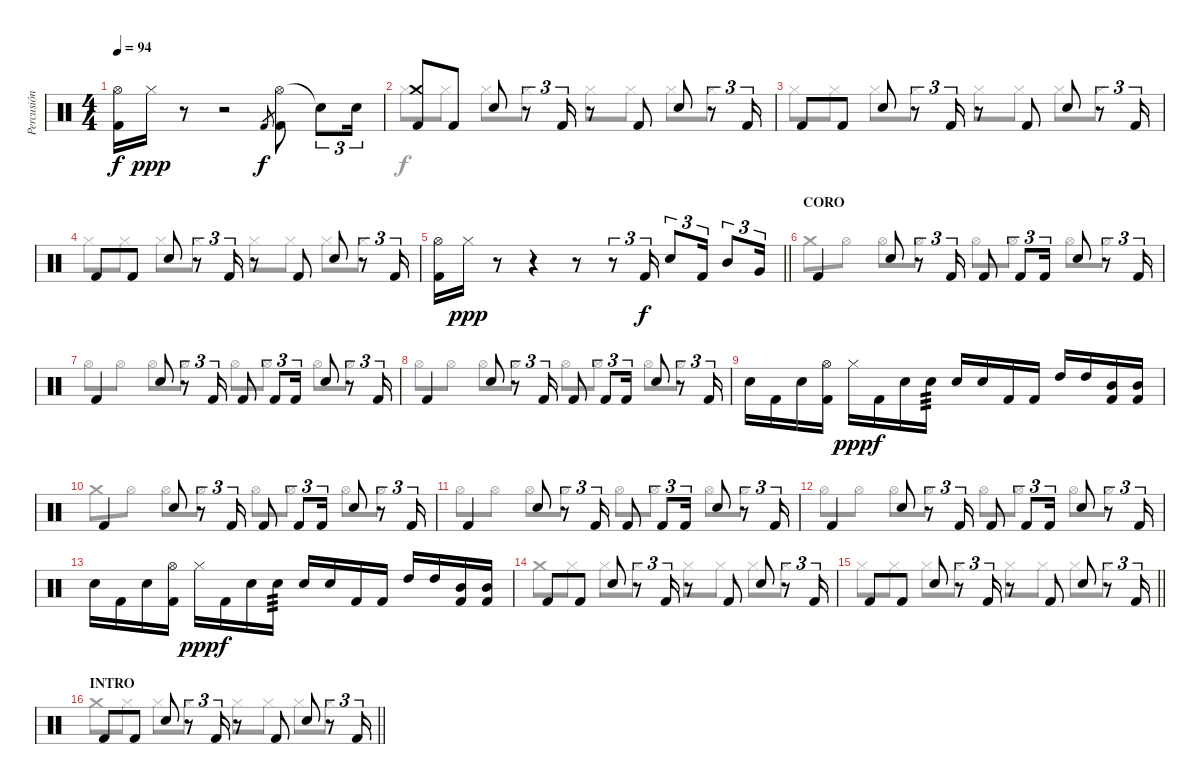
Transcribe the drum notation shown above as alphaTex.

\track ("Percusión" "Percusión") {instrument percussion}
\staff {score}
\articulation defaults
\voice
\ts (4 4)
\tempo 94
\clef neutral
\ks c
("Hi-Hat (open)" "Kick (hit) 2").16{dy f} "Hi-Hat (closed)".16{dy ppp} r.8 r.2 "Kick (hit) 2".8{gr dy f} ("Hi-Hat (open)" "Kick (hit) 2").8 "Snare (hit)"{t}.8{tu (3 2)} "Electric Snare (hit)".16{tu (3 2)} |
("Crash medium (hit)" "Kick (hit) 2").8 "Kick (hit) 2".8 "Electric Snare (hit)".8 r.8{tu (3 2)} "Kick (hit) 2".16{tu (3 2)} r.8 "Kick (hit) 2".8 "Electric Snare (hit)".8 r.8{tu (3 2)} "Kick (hit) 2".16{tu (3 2)} |
"Kick (hit) 2".8 "Kick (hit) 2".8 "Electric Snare (hit)".8 r.8{tu (3 2)} "Kick (hit) 2".16{tu (3 2)} r.8 "Kick (hit) 2".8 "Electric Snare (hit)".8 r.8{tu (3 2)} "Kick (hit) 2".16{tu (3 2)} |
"Kick (hit) 2".8 "Kick (hit) 2".8 "Electric Snare (hit)".8 r.8{tu (3 2)} "Kick (hit) 2".16{tu (3 2)} r.8 "Kick (hit) 2".8 "Electric Snare (hit)".8 r.8{tu (3 2)} "Kick (hit) 2".16{tu (3 2)} |
\barLineRight lightlight
("Hi-Hat (open)" "Kick (hit) 2").16 "Hi-Hat (closed)".16{dy ppp} r.8 r.4 r.8 r.8{tu (3 2)} "Kick (hit) 2".16{tu (3 2) dy f} "Electric Snare (hit)".8{tu (3 2)} "Kick (hit) 2".16{tu (3 2)} "Mid Tom (hit)".8{tu (3 2)} "Very Low Tom (hit)".16{tu (3 2)} |
\section ("" "CORO")
"Kick (hit) 2".4 "Electric Snare (hit)".8 r.8{tu (3 2)} "Kick (hit) 2".16{tu (3 2)} "Kick (hit) 2".8 "Kick (hit) 2".8{tu (3 2)} "Kick (hit) 2".16{tu (3 2)} "Electric Snare (hit)".8 r.8{tu (3 2)} "Kick (hit) 2".16{tu (3 2)} |
"Kick (hit) 2".4 "Electric Snare (hit)".8 r.8{tu (3 2)} "Kick (hit) 2".16{tu (3 2)} "Kick (hit) 2".8 "Kick (hit) 2".8{tu (3 2)} "Kick (hit) 2".16{tu (3 2)} "Electric Snare (hit)".8 r.8{tu (3 2)} "Kick (hit) 2".16{tu (3 2)} |
"Kick (hit) 2".4 "Electric Snare (hit)".8 r.8{tu (3 2)} "Kick (hit) 2".16{tu (3 2)} "Kick (hit) 2".8 "Kick (hit) 2".8{tu (3 2)} "Kick (hit) 2".16{tu (3 2)} "Electric Snare (hit)".8 r.8{tu (3 2)} "Kick (hit) 2".16{tu (3 2)} |
"Electric Snare (hit)".16 "Kick (hit) 2".16 "Electric Snare (hit)".16 ("Hi-Hat (open)" "Kick (hit) 2").16 "Hi-Hat (closed)".16{dy ppp} "Kick (hit) 2".16{dy f} "Electric Snare (hit)".16 "Electric Snare (hit)".16{tp 3} "Electric Snare (hit)".16 "Electric Snare (hit)".16 "Kick (hit) 2".16 "Kick (hit) 2".16 "High Tom (hit)".16 "High Tom (hit)".16 ("Mid Tom (hit)" "Kick (hit) 2").16 ("Mid Tom (hit)" "Kick (hit) 2").16 |
"Kick (hit) 2".4 "Electric Snare (hit)".8 r.8{tu (3 2)} "Kick (hit) 2".16{tu (3 2)} "Kick (hit) 2".8 "Kick (hit) 2".8{tu (3 2)} "Kick (hit) 2".16{tu (3 2)} "Electric Snare (hit)".8 r.8{tu (3 2)} "Kick (hit) 2".16{tu (3 2)} |
"Kick (hit) 2".4 "Electric Snare (hit)".8 r.8{tu (3 2)} "Kick (hit) 2".16{tu (3 2)} "Kick (hit) 2".8 "Kick (hit) 2".8{tu (3 2)} "Kick (hit) 2".16{tu (3 2)} "Electric Snare (hit)".8 r.8{tu (3 2)} "Kick (hit) 2".16{tu (3 2)} |
"Kick (hit) 2".4 "Electric Snare (hit)".8 r.8{tu (3 2)} "Kick (hit) 2".16{tu (3 2)} "Kick (hit) 2".8 "Kick (hit) 2".8{tu (3 2)} "Kick (hit) 2".16{tu (3 2)} "Electric Snare (hit)".8 r.8{tu (3 2)} "Kick (hit) 2".16{tu (3 2)} |
"Electric Snare (hit)".16 "Kick (hit) 2".16 "Electric Snare (hit)".16 ("Hi-Hat (open)" "Kick (hit) 2").16 "Hi-Hat (closed)".16{dy ppp} "Kick (hit) 2".16{dy f} "Electric Snare (hit)".16 "Electric Snare (hit)".16{tp 3} "Electric Snare (hit)".16 "Electric Snare (hit)".16 "Kick (hit) 2".16 "Kick (hit) 2".16 "High Tom (hit)".16 "High Tom (hit)".16 ("Mid Tom (hit)" "Kick (hit) 2").16 ("Mid Tom (hit)" "Kick (hit) 2").16 |
"Kick (hit) 2".8 "Kick (hit) 2".8 "Electric Snare (hit)".8 r.8{tu (3 2)} "Kick (hit) 2".16{tu (3 2)} r.8 "Kick (hit) 2".8 "Electric Snare (hit)".8 r.8{tu (3 2)} "Kick (hit) 2".16{tu (3 2)} |
\barLineRight lightlight "Kick (hit) 2".8 "Kick (hit) 2".8 "Electric Snare (hit)".8
r.8{tu (3 2)} "Kick (hit) 2".16{tu (3 2)} r.8 "Kick (hit) 2".8 "Electric Snare (hit)".8 r.8{tu (3 2)} "Kick (hit) 2".16{tu (3 2)} |
\section ("" "INTRO")
\barLineRight lightlight "Kick (hit) 2".8 "Kick (hit) 2".8 "Electric Snare (hit)".8
r.8{tu (3 2)} "Kick (hit) 2".16{tu (3 2)} r.8 "Kick (hit) 2".8 "Electric Snare (hit)".8 r.8{tu (3 2)} "Kick (hit) 2".16{tu (3 2)}
\voice
\clef neutral
\ottava regular
\simile none
\ks c
|
"Hi-Hat (closed)".8 "Hi-Hat (closed)".8 "Hi-Hat (closed)".8 "Hi-Hat (closed)".8 "Hi-Hat (closed)".8 "Hi-Hat (closed)".8 "Hi-Hat (closed)".8 "Hi-Hat (closed)".8 |
"Hi-Hat (closed)".8 "Hi-Hat (closed)".8 "Hi-Hat (closed)".8 "Hi-Hat (closed)".8 "Hi-Hat (closed)".8 "Hi-Hat (closed)".8 "Hi-Hat (closed)".8 "Hi-Hat (closed)".8 |
"Hi-Hat (closed)".8 "Hi-Hat (closed)".8 "Hi-Hat (closed)".8 "Hi-Hat (closed)".8 "Hi-Hat (closed)".8 "Hi-Hat (closed)".8 "Hi-Hat (closed)".8 "Hi-Hat (closed)".8 |
\barLineRight lightlight
|
"Crash medium (hit)".8 "Hi-Hat (open)".8 "Hi-Hat (open)".8 "Hi-Hat (open)".8 "Hi-Hat (open)".8 "Hi-Hat (open)".8 "Hi-Hat (open)".8 "Hi-Hat (open)".8 |
"Hi-Hat (open)".8 "Hi-Hat (open)".8 "Hi-Hat (open)".8 "Hi-Hat (open)".8 "Hi-Hat (open)".8 "Hi-Hat (open)".8 "Hi-Hat (open)".8 "Hi-Hat (open)".8 |
"Hi-Hat (open)".8 "Hi-Hat (open)".8 "Hi-Hat (open)".8 "Hi-Hat (open)".8 "Hi-Hat (open)".8 "Hi-Hat (open)".8 "Hi-Hat (open)".8 "Hi-Hat (open)".8 |
|
"Crash medium (hit)".8 "Hi-Hat (open)".8 "Hi-Hat (open)".8 "Hi-Hat (open)".8 "Hi-Hat (open)".8 "Hi-Hat (open)".8 "Hi-Hat (open)".8 "Hi-Hat (open)".8 |
"Hi-Hat (open)".8 "Hi-Hat (open)".8 "Hi-Hat (open)".8 "Hi-Hat (open)".8 "Hi-Hat (open)".8 "Hi-Hat (open)".8 "Hi-Hat (open)".8 "Hi-Hat (open)".8 |
"Hi-Hat (open)".8 "Hi-Hat (open)".8 "Hi-Hat (open)".8 "Hi-Hat (open)".8 "Hi-Hat (open)".8 "Hi-Hat (open)".8 "Hi-Hat (open)".8 "Hi-Hat (open)".8 |
|
"Crash medium (hit)".8 "Hi-Hat (closed)".8 "Hi-Hat (closed)".8 "Hi-Hat (closed)".8 "Hi-Hat (closed)".8 "Hi-Hat (closed)".8 "Hi-Hat (closed)".8 "Hi-Hat (closed)".8 |
\barLineRight lightlight "Hi-Hat (closed)".8 "Hi-Hat (closed)".8 "Hi-Hat (closed)".8 "Hi-Hat (closed)".8 "Hi-Hat (closed)".8 "Hi-Hat (closed)".8 "Hi-Hat (closed)".8 "Hi-Hat (closed)".8
|
\barLineRight lightlight "Crash medium (hit)".8 "Hi-Hat (closed)".8 "Hi-Hat (closed)".8 "Hi-Hat (closed)".8 "Hi-Hat (closed)".8 "Hi-Hat (closed)".8 "Hi-Hat (closed)".8 "Hi-Hat (closed)".8
